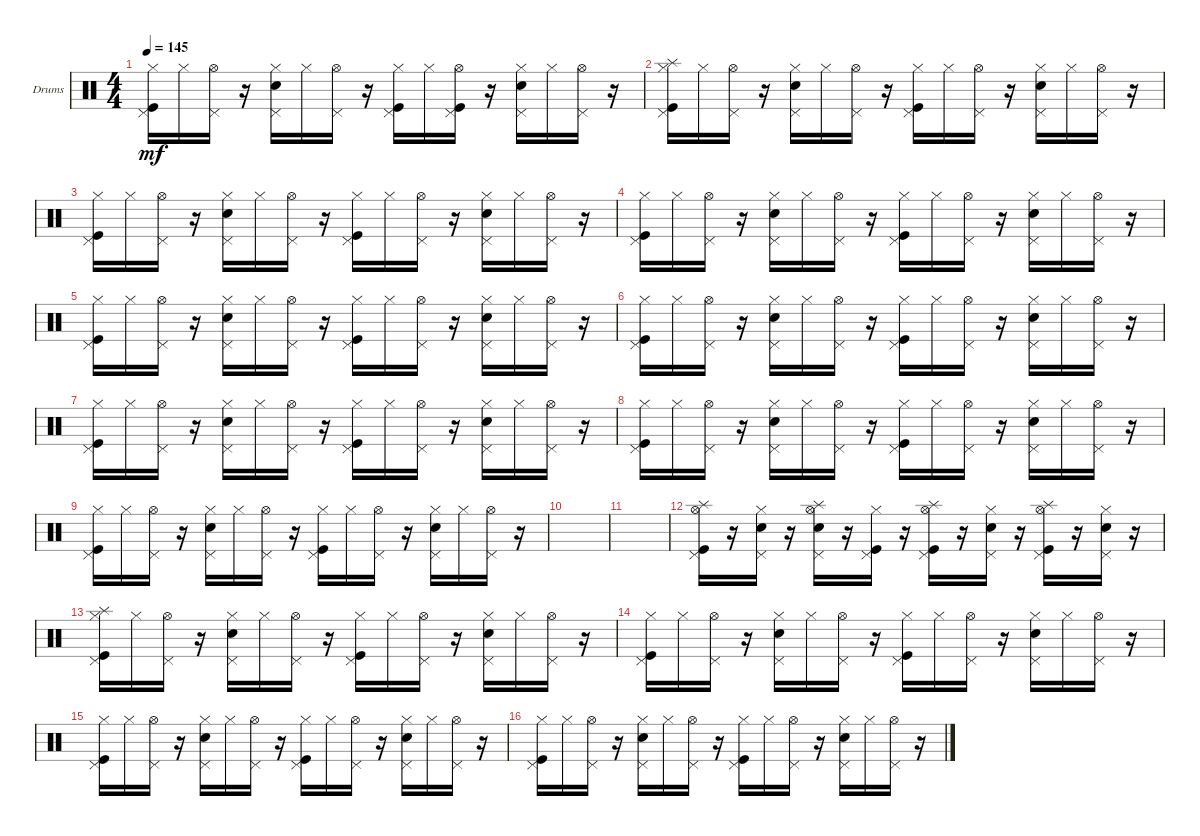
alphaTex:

\bracketExtendMode groupsimilarinstruments
\firstSystemTrackNameOrientation horizontal
\otherSystemsTrackNameOrientation horizontal
\track ("Drumkit" "Drums") {solo instrument percussion}
\staff {score}
\articulation defaults
\ts (4 4)
\tempo 145
\clef neutral
\ks c
("Kick (hit)" "Hi-Hat (closed)" "Pedal Hi-Hat (hit)").16{dy mf} "Hi-Hat (closed)".16 ("Hi-Hat (open)" "Pedal Hi-Hat (hit)").16 r.16 ("Snare (hit) 2" "Pedal Hi-Hat (hit)" "Hi-Hat (closed)").16 "Hi-Hat (closed)".16 ("Hi-Hat (open)" "Pedal Hi-Hat (hit)").16 r.16 ("Kick (hit)" "Hi-Hat (closed)" "Pedal Hi-Hat (hit)").16 "Hi-Hat (closed)".16 ("Hi-Hat (open)" "Pedal Hi-Hat (hit)" "Kick (hit)").16 r.16 ("Snare (hit) 2" "Pedal Hi-Hat (hit)" "Hi-Hat (closed)").16 "Hi-Hat (closed)".16 ("Hi-Hat (open)" "Pedal Hi-Hat (hit)").16 r.16 |
("Kick (hit)" "Hi-Hat (closed)" "Pedal Hi-Hat (hit)" "Splash (hit)").16 "Hi-Hat (closed)".16 ("Hi-Hat (open)" "Pedal Hi-Hat (hit)").16 r.16 ("Snare (hit) 2" "Pedal Hi-Hat (hit)" "Hi-Hat (closed)").16 "Hi-Hat (closed)".16 ("Hi-Hat (open)" "Pedal Hi-Hat (hit)").16 r.16 ("Kick (hit)" "Hi-Hat (closed)" "Pedal Hi-Hat (hit)").16 "Hi-Hat (closed)".16 ("Hi-Hat (open)" "Pedal Hi-Hat (hit)").16 r.16 ("Snare (hit) 2" "Pedal Hi-Hat (hit)" "Hi-Hat (closed)").16 "Hi-Hat (closed)".16 ("Hi-Hat (open)" "Pedal Hi-Hat (hit)").16 r.16 |
("Kick (hit)" "Hi-Hat (closed)" "Pedal Hi-Hat (hit)").16 "Hi-Hat (closed)".16 ("Hi-Hat (open)" "Pedal Hi-Hat (hit)").16 r.16 ("Snare (hit) 2" "Pedal Hi-Hat (hit)" "Hi-Hat (closed)").16 "Hi-Hat (closed)".16 ("Hi-Hat (open)" "Pedal Hi-Hat (hit)").16 r.16 ("Kick (hit)" "Hi-Hat (closed)" "Pedal Hi-Hat (hit)").16 "Hi-Hat (closed)".16 ("Hi-Hat (open)" "Pedal Hi-Hat (hit)").16 r.16 ("Snare (hit) 2" "Pedal Hi-Hat (hit)" "Hi-Hat (closed)").16 "Hi-Hat (closed)".16 ("Hi-Hat (open)" "Pedal Hi-Hat (hit)").16 r.16 |
("Kick (hit)" "Hi-Hat (closed)" "Pedal Hi-Hat (hit)").16 "Hi-Hat (closed)".16 ("Hi-Hat (open)" "Pedal Hi-Hat (hit)").16 r.16 ("Snare (hit) 2" "Pedal Hi-Hat (hit)" "Hi-Hat (closed)").16 "Hi-Hat (closed)".16 ("Hi-Hat (open)" "Pedal Hi-Hat (hit)").16 r.16 ("Kick (hit)" "Hi-Hat (closed)" "Pedal Hi-Hat (hit)").16 "Hi-Hat (closed)".16 ("Hi-Hat (open)" "Pedal Hi-Hat (hit)").16 r.16 ("Snare (hit) 2" "Pedal Hi-Hat (hit)" "Hi-Hat (closed)").16 "Hi-Hat (closed)".16 ("Hi-Hat (open)" "Pedal Hi-Hat (hit)").16 r.16 |
("Kick (hit)" "Hi-Hat (closed)" "Pedal Hi-Hat (hit)").16 "Hi-Hat (closed)".16 ("Hi-Hat (open)" "Pedal Hi-Hat (hit)").16 r.16 ("Snare (hit) 2" "Pedal Hi-Hat (hit)" "Hi-Hat (closed)").16 "Hi-Hat (closed)".16 ("Hi-Hat (open)" "Pedal Hi-Hat (hit)").16 r.16 ("Kick (hit)" "Hi-Hat (closed)" "Pedal Hi-Hat (hit)").16 "Hi-Hat (closed)".16 ("Hi-Hat (open)" "Pedal Hi-Hat (hit)").16 r.16 ("Snare (hit) 2" "Pedal Hi-Hat (hit)" "Hi-Hat (closed)").16 "Hi-Hat (closed)".16 ("Hi-Hat (open)" "Pedal Hi-Hat (hit)").16 r.16 |
("Kick (hit)" "Hi-Hat (closed)" "Pedal Hi-Hat (hit)").16 "Hi-Hat (closed)".16 ("Hi-Hat (open)" "Pedal Hi-Hat (hit)").16 r.16 ("Snare (hit) 2" "Pedal Hi-Hat (hit)" "Hi-Hat (closed)").16 "Hi-Hat (closed)".16 ("Hi-Hat (open)" "Pedal Hi-Hat (hit)").16 r.16 ("Kick (hit)" "Hi-Hat (closed)" "Pedal Hi-Hat (hit)").16 "Hi-Hat (closed)".16 ("Hi-Hat (open)" "Pedal Hi-Hat (hit)").16 r.16 ("Snare (hit) 2" "Pedal Hi-Hat (hit)" "Hi-Hat (closed)").16 "Hi-Hat (closed)".16 ("Hi-Hat (open)" "Pedal Hi-Hat (hit)").16 r.16 |
("Kick (hit)" "Hi-Hat (closed)" "Pedal Hi-Hat (hit)").16 "Hi-Hat (closed)".16 ("Hi-Hat (open)" "Pedal Hi-Hat (hit)").16 r.16 ("Snare (hit) 2" "Pedal Hi-Hat (hit)" "Hi-Hat (closed)").16 "Hi-Hat (closed)".16 ("Hi-Hat (open)" "Pedal Hi-Hat (hit)").16 r.16 ("Kick (hit)" "Hi-Hat (closed)" "Pedal Hi-Hat (hit)").16 "Hi-Hat (closed)".16 ("Hi-Hat (open)" "Pedal Hi-Hat (hit)").16 r.16 ("Snare (hit) 2" "Pedal Hi-Hat (hit)" "Hi-Hat (closed)").16 "Hi-Hat (closed)".16 ("Hi-Hat (open)" "Pedal Hi-Hat (hit)").16 r.16 |
("Kick (hit)" "Hi-Hat (closed)" "Pedal Hi-Hat (hit)").16 "Hi-Hat (closed)".16 ("Hi-Hat (open)" "Pedal Hi-Hat (hit)").16 r.16 ("Snare (hit) 2" "Pedal Hi-Hat (hit)" "Hi-Hat (closed)").16 "Hi-Hat (closed)".16 ("Hi-Hat (open)" "Pedal Hi-Hat (hit)").16 r.16 ("Kick (hit)" "Hi-Hat (closed)" "Pedal Hi-Hat (hit)").16 "Hi-Hat (closed)".16 ("Hi-Hat (open)" "Pedal Hi-Hat (hit)").16 r.16 ("Snare (hit) 2" "Pedal Hi-Hat (hit)" "Hi-Hat (closed)").16 "Hi-Hat (closed)".16 ("Hi-Hat (open)" "Pedal Hi-Hat (hit)").16 r.16 |
("Kick (hit)" "Hi-Hat (closed)" "Pedal Hi-Hat (hit)").16 "Hi-Hat (closed)".16 ("Hi-Hat (open)" "Pedal Hi-Hat (hit)").16 r.16 ("Snare (hit) 2" "Pedal Hi-Hat (hit)" "Hi-Hat (closed)").16 "Hi-Hat (closed)".16 ("Hi-Hat (open)" "Pedal Hi-Hat (hit)").16 r.16 ("Kick (hit)" "Hi-Hat (closed)" "Pedal Hi-Hat (hit)").16 "Hi-Hat (closed)".16 ("Hi-Hat (open)" "Pedal Hi-Hat (hit)").16 r.16 ("Snare (hit) 2" "Pedal Hi-Hat (hit)" "Hi-Hat (closed)").16 "Hi-Hat (closed)".16 ("Hi-Hat (open)" "Pedal Hi-Hat (hit)").16 r.16 |
|
|
("Kick (hit)" "Hi-Hat (open)" "Pedal Hi-Hat (hit)" "Splash (hit)").16 r.16 ("Hi-Hat (closed)" "Snare (hit) 2" "Pedal Hi-Hat (hit)").16 r.16 ("Snare (hit) 2" "Hi-Hat (open)" "Pedal Hi-Hat (hit)" "Splash (hit)").16 r.16 ("Hi-Hat (closed)" "Pedal Hi-Hat (hit)" "Kick (hit)").16 r.16 ("Kick (hit)" "Hi-Hat (open)" "Pedal Hi-Hat (hit)" "Splash (hit)").16 r.16 ("Hi-Hat (closed)" "Snare (hit) 2" "Pedal Hi-Hat (hit)").16 r.16 ("Hi-Hat (open)" "Kick (hit)" "Pedal Hi-Hat (hit)" "Splash (hit)").16 r.16 ("Hi-Hat (closed)" "Snare (hit) 2" "Pedal Hi-Hat (hit)").16 r.16 |
("Pedal Hi-Hat (hit)" "Kick (hit)" "Hi-Hat (closed)" "Splash (hit)").16 "Hi-Hat (closed)".16 ("Hi-Hat (open)" "Pedal Hi-Hat (hit)").16 r.16 ("Snare (hit) 2" "Pedal Hi-Hat (hit)" "Hi-Hat (closed)").16 "Hi-Hat (closed)".16 ("Hi-Hat (open)" "Pedal Hi-Hat (hit)").16 r.16 ("Kick (hit)" "Hi-Hat (closed)" "Pedal Hi-Hat (hit)").16 "Hi-Hat (closed)".16 ("Hi-Hat (open)" "Pedal Hi-Hat (hit)").16 r.16 ("Snare (hit) 2" "Pedal Hi-Hat (hit)" "Hi-Hat (closed)").16 "Hi-Hat (closed)".16 ("Hi-Hat (open)" "Pedal Hi-Hat (hit)").16 r.16 |
("Kick (hit)" "Hi-Hat (closed)" "Pedal Hi-Hat (hit)").16 "Hi-Hat (closed)".16 ("Hi-Hat (open)" "Pedal Hi-Hat (hit)").16 r.16 ("Snare (hit) 2" "Pedal Hi-Hat (hit)" "Hi-Hat (closed)").16 "Hi-Hat (closed)".16 ("Hi-Hat (open)" "Pedal Hi-Hat (hit)").16 r.16 ("Kick (hit)" "Hi-Hat (closed)" "Pedal Hi-Hat (hit)").16 "Hi-Hat (closed)".16 ("Hi-Hat (open)" "Pedal Hi-Hat (hit)").16 r.16 ("Snare (hit) 2" "Pedal Hi-Hat (hit)" "Hi-Hat (closed)").16 "Hi-Hat (closed)".16 ("Hi-Hat (open)" "Pedal Hi-Hat (hit)").16 r.16 |
("Kick (hit)" "Hi-Hat (closed)" "Pedal Hi-Hat (hit)").16 "Hi-Hat (closed)".16 ("Hi-Hat (open)" "Pedal Hi-Hat (hit)").16 r.16 ("Snare (hit) 2" "Pedal Hi-Hat (hit)" "Hi-Hat (closed)").16 "Hi-Hat (closed)".16 ("Hi-Hat (open)" "Pedal Hi-Hat (hit)").16 r.16 ("Kick (hit)" "Hi-Hat (closed)" "Pedal Hi-Hat (hit)").16 "Hi-Hat (closed)".16 ("Hi-Hat (open)" "Pedal Hi-Hat (hit)").16 r.16 ("Snare (hit) 2" "Pedal Hi-Hat (hit)" "Hi-Hat (closed)").16 "Hi-Hat (closed)".16 ("Hi-Hat (open)" "Pedal Hi-Hat (hit)").16 r.16 |
("Kick (hit)" "Hi-Hat (closed)" "Pedal Hi-Hat (hit)").16 "Hi-Hat (closed)".16 ("Hi-Hat (open)" "Pedal Hi-Hat (hit)").16 r.16 ("Snare (hit) 2" "Pedal Hi-Hat (hit)" "Hi-Hat (closed)").16 "Hi-Hat (closed)".16 ("Hi-Hat (open)" "Pedal Hi-Hat (hit)").16 r.16 ("Kick (hit)" "Hi-Hat (closed)" "Pedal Hi-Hat (hit)").16 "Hi-Hat (closed)".16 ("Hi-Hat (open)" "Pedal Hi-Hat (hit)").16 r.16 ("Snare (hit) 2" "Pedal Hi-Hat (hit)" "Hi-Hat (closed)").16 "Hi-Hat (closed)".16 ("Hi-Hat (open)" "Pedal Hi-Hat (hit)").16 r.16
